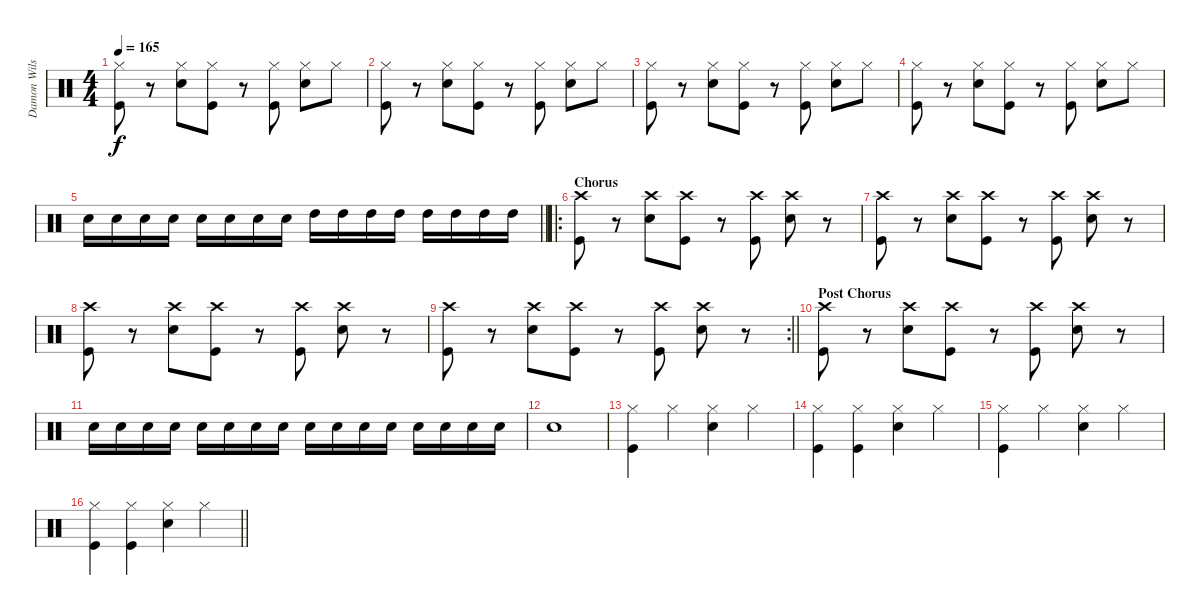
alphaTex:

\track ("Damon Wilson" "Damon Wils") {instrument percussion}
\staff {score}
\articulation defaults
\ts (4 4)
\tempo 165
\clef neutral
\ks c
("Hi-Hat (closed)" "Kick (hit)").8{dy f} r.8 ("Hi-Hat (closed)" "Snare (hit) 2").8 ("Hi-Hat (closed)" "Kick (hit)").8 r.8 ("Hi-Hat (closed)" "Kick (hit)").8 ("Hi-Hat (closed)" "Snare (hit) 2").8 "Hi-Hat (closed)".8 |
("Hi-Hat (closed)" "Kick (hit)").8 r.8 ("Hi-Hat (closed)" "Snare (hit) 2").8 ("Hi-Hat (closed)" "Kick (hit)").8 r.8 ("Hi-Hat (closed)" "Kick (hit)").8 ("Hi-Hat (closed)" "Snare (hit) 2").8 "Hi-Hat (closed)".8 |
("Hi-Hat (closed)" "Kick (hit)").8 r.8 ("Hi-Hat (closed)" "Snare (hit) 2").8 ("Hi-Hat (closed)" "Kick (hit)").8 r.8 ("Hi-Hat (closed)" "Kick (hit)").8 ("Hi-Hat (closed)" "Snare (hit) 2").8 "Hi-Hat (closed)".8 |
("Hi-Hat (closed)" "Kick (hit)").8 r.8 ("Hi-Hat (closed)" "Snare (hit) 2").8 ("Hi-Hat (closed)" "Kick (hit)").8 r.8 ("Hi-Hat (closed)" "Kick (hit)").8 ("Hi-Hat (closed)" "Snare (hit) 2").8 "Hi-Hat (closed)".8 |
\barLineRight lightlight "Snare (hit) 2".16 "Snare (hit) 2".16 "Snare (hit) 2".16 "Snare (hit) 2".16 "Snare (hit) 2".16 "Snare (hit) 2".16 "Snare (hit) 2".16 "Snare (hit) 2".16 "High Tom (hit)".16 "High Tom (hit)".16 "High Tom (hit)".16 "High Tom (hit)".16 "High Tom (hit)".16 "High Tom (hit)".16 "High Tom (hit)".16 "High Tom (hit)".16
|
\ro
\section ("" "Chorus")
("Crash high (hit)" "Kick (hit)").8 r.8 ("Crash high (hit)" "Snare (hit) 2").8 ("Crash high (hit)" "Kick (hit)").8 r.8 ("Crash high (hit)" "Kick (hit)").8 ("Crash high (hit)" "Snare (hit) 2").8 r.8 |
("Crash high (hit)" "Kick (hit)").8 r.8 ("Crash high (hit)" "Snare (hit) 2").8 ("Crash high (hit)" "Kick (hit)").8 r.8 ("Crash high (hit)" "Kick (hit)").8 ("Crash high (hit)" "Snare (hit) 2").8 r.8 |
("Crash high (hit)" "Kick (hit)").8 r.8 ("Crash high (hit)" "Snare (hit) 2").8 ("Crash high (hit)" "Kick (hit)").8 r.8 ("Crash high (hit)" "Kick (hit)").8 ("Crash high (hit)" "Snare (hit) 2").8 r.8 |
\rc 2
\barLineRight lightlight
("Crash high (hit)" "Kick (hit)").8 r.8 ("Crash high (hit)" "Snare (hit) 2").8 ("Crash high (hit)" "Kick (hit)").8 r.8 ("Crash high (hit)" "Kick (hit)").8 ("Crash high (hit)" "Snare (hit) 2").8 r.8 |
\section ("" "Post Chorus")
("Crash high (hit)" "Kick (hit)").8 r.8 ("Crash high (hit)" "Snare (hit) 2").8 ("Crash high (hit)" "Kick (hit)").8 r.8 ("Crash high (hit)" "Kick (hit)").8 ("Crash high (hit)" "Snare (hit) 2").8 r.8 |
"Snare (hit) 2".16 "Snare (hit) 2".16 "Snare (hit) 2".16 "Snare (hit) 2".16 "Snare (hit) 2".16 "Snare (hit) 2".16 "Snare (hit) 2".16 "Snare (hit) 2".16 "Snare (hit) 2".16 "Snare (hit) 2".16 "Snare (hit) 2".16 "Snare (hit) 2".16 "Snare (hit) 2".16 "Snare (hit) 2".16 "Snare (hit) 2".16 "Snare (hit) 2".16 |
"Snare (hit) 2".1 |
("Hi-Hat (closed)" "Kick (hit)").4 "Hi-Hat (closed)".4 ("Hi-Hat (closed)" "Snare (hit) 2").4 "Hi-Hat (closed)".4 |
("Hi-Hat (closed)" "Kick (hit)").4 ("Hi-Hat (closed)" "Kick (hit)").4 ("Hi-Hat (closed)" "Snare (hit) 2").4 "Hi-Hat (closed)".4 |
("Hi-Hat (closed)" "Kick (hit)").4 "Hi-Hat (closed)".4 ("Hi-Hat (closed)" "Snare (hit) 2").4 "Hi-Hat (closed)".4 |
\barLineRight lightlight
("Hi-Hat (closed)" "Kick (hit)").4 ("Hi-Hat (closed)" "Kick (hit)").4 ("Hi-Hat (closed)" "Snare (hit) 2").4 "Hi-Hat (closed)".4
